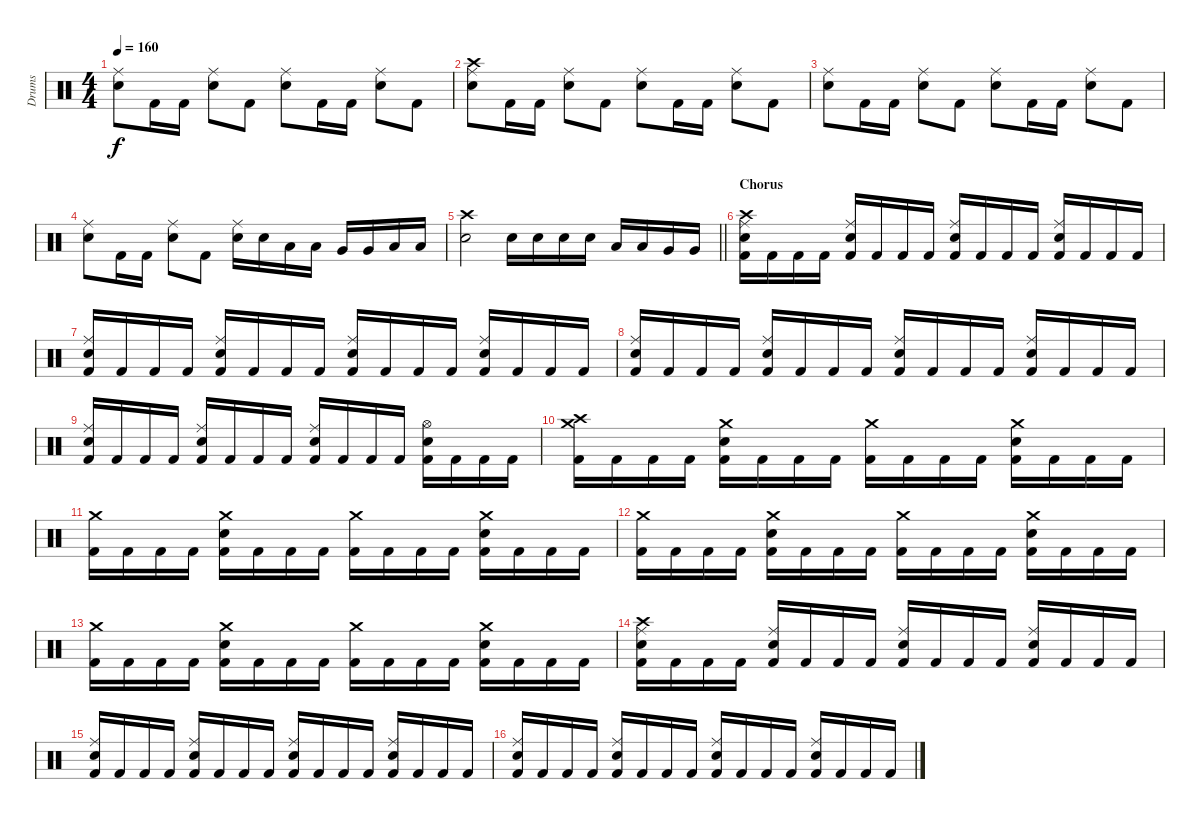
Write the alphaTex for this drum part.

\track ("Drums" "Drums") {instrument percussion}
\staff {score}
\articulation defaults
\ts (4 4)
\tempo 160
\clef neutral
\ks c
("Snare (hit) 2" "Ride (middle)").8{dy f} "Kick (hit) 2".16 "Kick (hit) 2".16 ("Snare (hit) 2" "Ride (middle)").8 "Kick (hit) 2".8 ("Snare (hit) 2" "Ride (middle)").8 "Kick (hit) 2".16 "Kick (hit) 2".16 ("Snare (hit) 2" "Ride (middle)").8 "Kick (hit) 2".8 |
("Snare (hit) 2" "Ride (middle)" "Crash high (hit)").8 "Kick (hit) 2".16 "Kick (hit) 2".16 ("Snare (hit) 2" "Ride (middle)").8 "Kick (hit) 2".8 ("Snare (hit) 2" "Ride (middle)").8 "Kick (hit) 2".16 "Kick (hit) 2".16 ("Snare (hit) 2" "Ride (middle)").8 "Kick (hit) 2".8 |
("Snare (hit) 2" "Ride (middle)").8 "Kick (hit) 2".16 "Kick (hit) 2".16 ("Snare (hit) 2" "Ride (middle)").8 "Kick (hit) 2".8 ("Snare (hit) 2" "Ride (middle)").8 "Kick (hit) 2".16 "Kick (hit) 2".16 ("Snare (hit) 2" "Ride (middle)").8 "Kick (hit) 2".8 |
("Snare (hit) 2" "Ride (middle)").8 "Kick (hit) 2".16 "Kick (hit) 2".16 ("Snare (hit) 2" "Ride (middle)").8 "Kick (hit) 2".8 ("Snare (hit) 2" "Ride (middle)").16 "Snare (hit) 2".16 "Low Tom (hit)".16 "Low Tom (hit)".16 "Very Low Tom (hit)".16 "Very Low Tom (hit)".16 "Low Floor Tom (hit)".16 "Low Floor Tom (hit)".16 |
\barLineRight lightlight
("Snare (hit) 2" "Crash high (hit)").2 "Snare (hit) 2".16 "Snare (hit) 2".16 "Snare (hit) 2".16 "Snare (hit) 2".16 "Low Tom (hit)".16 "Low Tom (hit)".16 "Very Low Tom (hit)".16 "Very Low Tom (hit)".16 |
\section ("" "Chorus")
("Snare (hit) 2" "Kick (hit) 2" "Ride (middle)" "Crash high (hit)").16 "Kick (hit) 2".16 "Kick (hit) 2".16 "Kick (hit) 2".16 ("Snare (hit) 2" "Kick (hit) 2" "Ride (middle)").16 "Kick (hit) 2".16 "Kick (hit) 2".16 "Kick (hit) 2".16 ("Snare (hit) 2" "Kick (hit) 2" "Ride (middle)").16 "Kick (hit) 2".16 "Kick (hit) 2".16 "Kick (hit) 2".16 ("Snare (hit) 2" "Kick (hit) 2" "Ride (middle)").16 "Kick (hit) 2".16 "Kick (hit) 2".16 "Kick (hit) 2".16 |
("Snare (hit) 2" "Kick (hit) 2" "Ride (middle)").16 "Kick (hit) 2".16 "Kick (hit) 2".16 "Kick (hit) 2".16 ("Snare (hit) 2" "Kick (hit) 2" "Ride (middle)").16 "Kick (hit) 2".16 "Kick (hit) 2".16 "Kick (hit) 2".16 ("Snare (hit) 2" "Kick (hit) 2" "Ride (middle)").16 "Kick (hit) 2".16 "Kick (hit) 2".16 "Kick (hit) 2".16 ("Snare (hit) 2" "Kick (hit) 2" "Ride (middle)").16 "Kick (hit) 2".16 "Kick (hit) 2".16 "Kick (hit) 2".16 |
("Snare (hit) 2" "Kick (hit) 2" "Ride (middle)").16 "Kick (hit) 2".16 "Kick (hit) 2".16 "Kick (hit) 2".16 ("Snare (hit) 2" "Kick (hit) 2" "Ride (middle)").16 "Kick (hit) 2".16 "Kick (hit) 2".16 "Kick (hit) 2".16 ("Snare (hit) 2" "Kick (hit) 2" "Ride (middle)").16 "Kick (hit) 2".16 "Kick (hit) 2".16 "Kick (hit) 2".16 ("Snare (hit) 2" "Kick (hit) 2" "Ride (middle)").16 "Kick (hit) 2".16 "Kick (hit) 2".16 "Kick (hit) 2".16 |
("Snare (hit) 2" "Kick (hit) 2" "Ride (middle)").16 "Kick (hit) 2".16 "Kick (hit) 2".16 "Kick (hit) 2".16 ("Snare (hit) 2" "Kick (hit) 2" "Ride (middle)").16 "Kick (hit) 2".16 "Kick (hit) 2".16 "Kick (hit) 2".16 ("Snare (hit) 2" "Kick (hit) 2" "Ride (middle)").16 "Kick (hit) 2".16 "Kick (hit) 2".16 "Kick (hit) 2".16 ("Snare (hit) 2" "Kick (hit) 2" "Hi-Hat (open)").16 "Kick (hit) 2".16 "Kick (hit) 2".16 "Kick (hit) 2".16 |
("Kick (hit) 2" "Crash medium (hit)" "Crash high (hit)").16 "Kick (hit) 2".16 "Kick (hit) 2".16 "Kick (hit) 2".16 ("Snare (hit) 2" "Kick (hit) 2" "Crash medium (hit)").16 "Kick (hit) 2".16 "Kick (hit) 2".16 "Kick (hit) 2".16 ("Kick (hit) 2" "Crash medium (hit)").16 "Kick (hit) 2".16 "Kick (hit) 2".16 "Kick (hit) 2".16 ("Snare (hit) 2" "Kick (hit) 2" "Crash medium (hit)").16 "Kick (hit) 2".16 "Kick (hit) 2".16 "Kick (hit) 2".16 |
("Kick (hit) 2" "Crash medium (hit)").16 "Kick (hit) 2".16 "Kick (hit) 2".16 "Kick (hit) 2".16 ("Snare (hit) 2" "Kick (hit) 2" "Crash medium (hit)").16 "Kick (hit) 2".16 "Kick (hit) 2".16 "Kick (hit) 2".16 ("Kick (hit) 2" "Crash medium (hit)").16 "Kick (hit) 2".16 "Kick (hit) 2".16 "Kick (hit) 2".16 ("Snare (hit) 2" "Kick (hit) 2" "Crash medium (hit)").16 "Kick (hit) 2".16 "Kick (hit) 2".16 "Kick (hit) 2".16 |
("Kick (hit) 2" "Crash medium (hit)").16 "Kick (hit) 2".16 "Kick (hit) 2".16 "Kick (hit) 2".16 ("Snare (hit) 2" "Kick (hit) 2" "Crash medium (hit)").16 "Kick (hit) 2".16 "Kick (hit) 2".16 "Kick (hit) 2".16 ("Kick (hit) 2" "Crash medium (hit)").16 "Kick (hit) 2".16 "Kick (hit) 2".16 "Kick (hit) 2".16 ("Snare (hit) 2" "Kick (hit) 2" "Crash medium (hit)").16 "Kick (hit) 2".16 "Kick (hit) 2".16 "Kick (hit) 2".16 |
("Kick (hit) 2" "Crash medium (hit)").16 "Kick (hit) 2".16 "Kick (hit) 2".16 "Kick (hit) 2".16 ("Snare (hit) 2" "Kick (hit) 2" "Crash medium (hit)").16 "Kick (hit) 2".16 "Kick (hit) 2".16 "Kick (hit) 2".16 ("Kick (hit) 2" "Crash medium (hit)").16 "Kick (hit) 2".16 "Kick (hit) 2".16 "Kick (hit) 2".16 ("Snare (hit) 2" "Kick (hit) 2" "Crash medium (hit)").16 "Kick (hit) 2".16 "Kick (hit) 2".16 "Kick (hit) 2".16 |
("Snare (hit) 2" "Kick (hit) 2" "Ride (middle)" "Crash high (hit)").16 "Kick (hit) 2".16 "Kick (hit) 2".16 "Kick (hit) 2".16 ("Snare (hit) 2" "Kick (hit) 2" "Ride (middle)").16 "Kick (hit) 2".16 "Kick (hit) 2".16 "Kick (hit) 2".16 ("Snare (hit) 2" "Kick (hit) 2" "Ride (middle)").16 "Kick (hit) 2".16 "Kick (hit) 2".16 "Kick (hit) 2".16 ("Snare (hit) 2" "Kick (hit) 2" "Ride (middle)").16 "Kick (hit) 2".16 "Kick (hit) 2".16 "Kick (hit) 2".16 |
("Snare (hit) 2" "Kick (hit) 2" "Ride (middle)").16 "Kick (hit) 2".16 "Kick (hit) 2".16 "Kick (hit) 2".16 ("Snare (hit) 2" "Kick (hit) 2" "Ride (middle)").16 "Kick (hit) 2".16 "Kick (hit) 2".16 "Kick (hit) 2".16 ("Snare (hit) 2" "Kick (hit) 2" "Ride (middle)").16 "Kick (hit) 2".16 "Kick (hit) 2".16 "Kick (hit) 2".16 ("Snare (hit) 2" "Kick (hit) 2" "Ride (middle)").16 "Kick (hit) 2".16 "Kick (hit) 2".16 "Kick (hit) 2".16 |
("Snare (hit) 2" "Kick (hit) 2" "Ride (middle)").16 "Kick (hit) 2".16 "Kick (hit) 2".16 "Kick (hit) 2".16 ("Snare (hit) 2" "Kick (hit) 2" "Ride (middle)").16 "Kick (hit) 2".16 "Kick (hit) 2".16 "Kick (hit) 2".16 ("Snare (hit) 2" "Kick (hit) 2" "Ride (middle)").16 "Kick (hit) 2".16 "Kick (hit) 2".16 "Kick (hit) 2".16 ("Snare (hit) 2" "Kick (hit) 2" "Ride (middle)").16 "Kick (hit) 2".16 "Kick (hit) 2".16 "Kick (hit) 2".16
